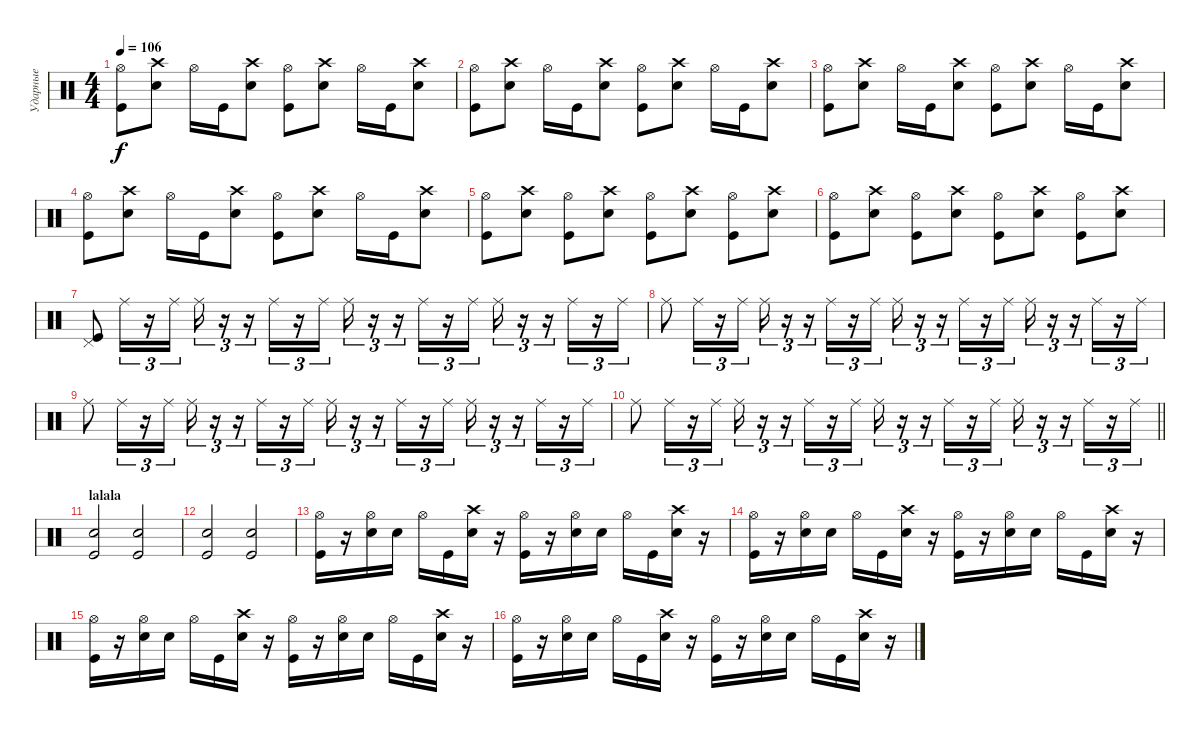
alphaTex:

\track ("Ударные" "Ударные") {instrument percussion}
\staff {score}
\articulation defaults
\ts (4 4)
\tempo 106
\clef neutral
\ks c
("Kick (hit)" "Hi-Hat (open)").8{dy f} ("Snare (hit) 2" "Crash high (hit)").8 "Hi-Hat (open)".16 "Kick (hit)".16 ("Snare (hit) 2" "Crash high (hit)").8 ("Kick (hit)" "Hi-Hat (open)").8 ("Snare (hit) 2" "Crash high (hit)").8 "Hi-Hat (open)".16 "Kick (hit)".16 ("Snare (hit) 2" "Crash high (hit)").8 |
("Kick (hit)" "Hi-Hat (open)").8 ("Snare (hit) 2" "Crash high (hit)").8 "Hi-Hat (open)".16 "Kick (hit)".16 ("Snare (hit) 2" "Crash high (hit)").8 ("Kick (hit)" "Hi-Hat (open)").8 ("Snare (hit) 2" "Crash high (hit)").8 "Hi-Hat (open)".16 "Kick (hit)".16 ("Snare (hit) 2" "Crash high (hit)").8 |
("Kick (hit)" "Hi-Hat (open)").8 ("Snare (hit) 2" "Crash high (hit)").8 "Hi-Hat (open)".16 "Kick (hit)".16 ("Snare (hit) 2" "Crash high (hit)").8 ("Kick (hit)" "Hi-Hat (open)").8 ("Snare (hit) 2" "Crash high (hit)").8 "Hi-Hat (open)".16 "Kick (hit)".16 ("Snare (hit) 2" "Crash high (hit)").8 |
("Kick (hit)" "Hi-Hat (open)").8 ("Snare (hit) 2" "Crash high (hit)").8 "Hi-Hat (open)".16 "Kick (hit)".16 ("Snare (hit) 2" "Crash high (hit)").8 ("Kick (hit)" "Hi-Hat (open)").8 ("Snare (hit) 2" "Crash high (hit)").8 "Hi-Hat (open)".16 "Kick (hit)".16 ("Snare (hit) 2" "Crash high (hit)").8 |
("Kick (hit)" "Hi-Hat (open)").8 ("Snare (hit) 2" "Crash high (hit)").8 ("Kick (hit)" "Hi-Hat (open)").8 ("Snare (hit) 2" "Crash high (hit)").8 ("Kick (hit)" "Hi-Hat (open)").8 ("Snare (hit) 2" "Crash high (hit)").8 ("Kick (hit)" "Hi-Hat (open)").8 ("Snare (hit) 2" "Crash high (hit)").8 |
("Kick (hit)" "Hi-Hat (open)").8 ("Snare (hit) 2" "Crash high (hit)").8 ("Kick (hit)" "Hi-Hat (open)").8 ("Snare (hit) 2" "Crash high (hit)").8 ("Kick (hit)" "Hi-Hat (open)").8 ("Snare (hit) 2" "Crash high (hit)").8 ("Kick (hit)" "Hi-Hat (open)").8 ("Snare (hit) 2" "Crash high (hit)").8 |
("Kick (hit)" "Pedal Hi-Hat (hit)").8 "Ride (middle)".16{tu (3 2)} r.16{tu (3 2)} "Ride (middle)".16{tu (3 2)} "Ride (middle)".16{tu (3 2)} r.16{tu (3 2)} r.16{tu (3 2)} "Ride (middle)".16{tu (3 2)} r.16{tu (3 2)} "Ride (middle)".16{tu (3 2)} "Ride (middle)".16{tu (3 2)} r.16{tu (3 2)} r.16{tu (3 2)} "Ride (middle)".16{tu (3 2)} r.16{tu (3 2)} "Ride (middle)".16{tu (3 2)} "Ride (middle)".16{tu (3 2)} r.16{tu (3 2)} r.16{tu (3 2)} "Ride (middle)".16{tu (3 2)} r.16{tu (3 2)} "Ride (middle)".16{tu (3 2)} |
"Ride (middle)".8 "Ride (middle)".16{tu (3 2)} r.16{tu (3 2)} "Ride (middle)".16{tu (3 2)} "Ride (middle)".16{tu (3 2)} r.16{tu (3 2)} r.16{tu (3 2)} "Ride (middle)".16{tu (3 2)} r.16{tu (3 2)} "Ride (middle)".16{tu (3 2)} "Ride (middle)".16{tu (3 2)} r.16{tu (3 2)} r.16{tu (3 2)} "Ride (middle)".16{tu (3 2)} r.16{tu (3 2)} "Ride (middle)".16{tu (3 2)} "Ride (middle)".16{tu (3 2)} r.16{tu (3 2)} r.16{tu (3 2)} "Ride (middle)".16{tu (3 2)} r.16{tu (3 2)} "Ride (middle)".16{tu (3 2)} |
"Ride (middle)".8 "Ride (middle)".16{tu (3 2)} r.16{tu (3 2)} "Ride (middle)".16{tu (3 2)} "Ride (middle)".16{tu (3 2)} r.16{tu (3 2)} r.16{tu (3 2)} "Ride (middle)".16{tu (3 2)} r.16{tu (3 2)} "Ride (middle)".16{tu (3 2)} "Ride (middle)".16{tu (3 2)} r.16{tu (3 2)} r.16{tu (3 2)} "Ride (middle)".16{tu (3 2)} r.16{tu (3 2)} "Ride (middle)".16{tu (3 2)} "Ride (middle)".16{tu (3 2)} r.16{tu (3 2)} r.16{tu (3 2)} "Ride (middle)".16{tu (3 2)} r.16{tu (3 2)} "Ride (middle)".16{tu (3 2)} |
\barLineRight lightlight "Ride (middle)".8 "Ride (middle)".16{tu (3 2)}
r.16{tu (3 2)} "Ride (middle)".16{tu (3 2)} "Ride (middle)".16{tu (3 2)} r.16{tu (3 2)} r.16{tu (3 2)} "Ride (middle)".16{tu (3 2)} r.16{tu (3 2)} "Ride (middle)".16{tu (3 2)} "Ride (middle)".16{tu (3 2)} r.16{tu (3 2)} r.16{tu (3 2)} "Ride (middle)".16{tu (3 2)} r.16{tu (3 2)} "Ride (middle)".16{tu (3 2)} "Ride (middle)".16{tu (3 2)} r.16{tu (3 2)} r.16{tu (3 2)} "Ride (middle)".16{tu (3 2)} r.16{tu (3 2)} "Ride (middle)".16{tu (3 2)} |
\section ("" "lalala")
("Kick (hit)" "Snare (hit) 2").2 ("Kick (hit)" "Snare (hit) 2").2 |
("Kick (hit)" "Snare (hit) 2").2 ("Kick (hit)" "Snare (hit) 2").2 |
("Kick (hit)" "Hi-Hat (open)").16 r.16 ("Snare (hit) 2" "Hi-Hat (open)").16 "Snare (hit) 2".16 "Hi-Hat (open)".16 "Kick (hit)".16 ("Snare (hit) 2" "Crash high (hit)").16 r.16 ("Kick (hit)" "Hi-Hat (open)").16 r.16 ("Snare (hit) 2" "Hi-Hat (open)").16 "Snare (hit) 2".16 "Hi-Hat (open)".16 "Kick (hit)".16 ("Snare (hit) 2" "Crash high (hit)").16 r.16 |
("Kick (hit)" "Hi-Hat (open)").16 r.16 ("Snare (hit) 2" "Hi-Hat (open)").16 "Snare (hit) 2".16 "Hi-Hat (open)".16 "Kick (hit)".16 ("Snare (hit) 2" "Crash high (hit)").16 r.16 ("Kick (hit)" "Hi-Hat (open)").16 r.16 ("Snare (hit) 2" "Hi-Hat (open)").16 "Snare (hit) 2".16 "Hi-Hat (open)".16 "Kick (hit)".16 ("Snare (hit) 2" "Crash high (hit)").16 r.16 |
("Kick (hit)" "Hi-Hat (open)").16 r.16 ("Snare (hit) 2" "Hi-Hat (open)").16 "Snare (hit) 2".16 "Hi-Hat (open)".16 "Kick (hit)".16 ("Snare (hit) 2" "Crash high (hit)").16 r.16 ("Kick (hit)" "Hi-Hat (open)").16 r.16 ("Snare (hit) 2" "Hi-Hat (open)").16 "Snare (hit) 2".16 "Hi-Hat (open)".16 "Kick (hit)".16 ("Snare (hit) 2" "Crash high (hit)").16 r.16 |
("Kick (hit)" "Hi-Hat (open)").16 r.16 ("Snare (hit) 2" "Hi-Hat (open)").16 "Snare (hit) 2".16 "Hi-Hat (open)".16 "Kick (hit)".16 ("Snare (hit) 2" "Crash high (hit)").16 r.16 ("Kick (hit)" "Hi-Hat (open)").16 r.16 ("Snare (hit) 2" "Hi-Hat (open)").16 "Snare (hit) 2".16 "Hi-Hat (open)".16 "Kick (hit)".16 ("Snare (hit) 2" "Crash high (hit)").16 r.16
